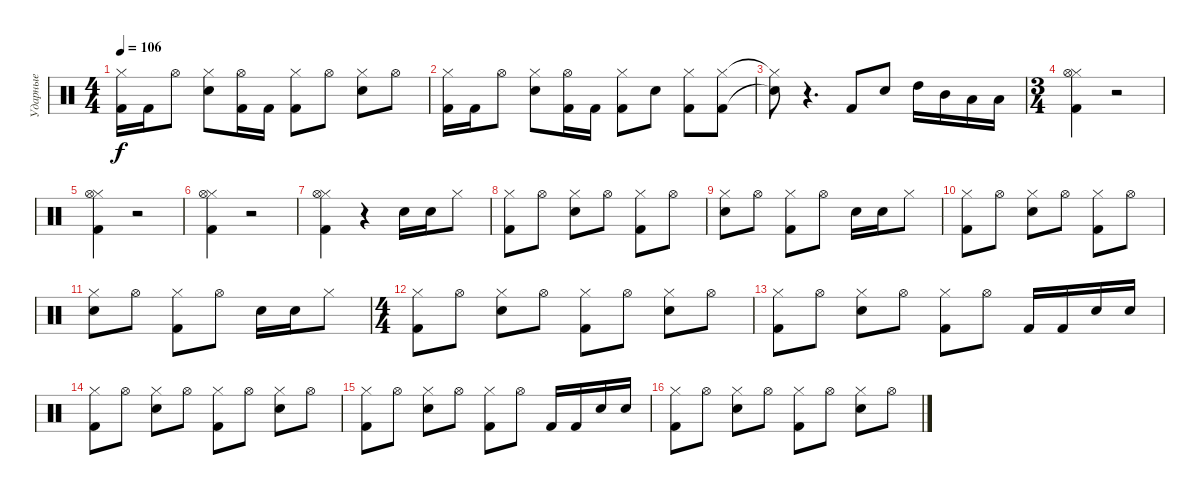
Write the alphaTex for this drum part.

\track ("Ударные" "Ударные") {instrument percussion}
\staff {score}
\articulation defaults
\ts (4 4)
\tempo 106
\clef neutral
\ks c
("Hi-Hat (closed)" "Kick (hit) 2").16{dy f} "Kick (hit) 2".16 "Hi-Hat (open)".8 ("Hi-Hat (closed)" "Electric Snare (hit)").8 ("Kick (hit) 2" "Hi-Hat (open)").16 "Kick (hit) 2".16 ("Hi-Hat (closed)" "Kick (hit) 2").8 "Hi-Hat (open)".8 ("Hi-Hat (closed)" "Electric Snare (hit)").8 "Hi-Hat (open)".8 |
("Hi-Hat (closed)" "Kick (hit) 2").16 "Kick (hit) 2".16 "Hi-Hat (open)".8 ("Hi-Hat (closed)" "Electric Snare (hit)").8 ("Kick (hit) 2" "Hi-Hat (open)").16 "Kick (hit) 2".16 ("Hi-Hat (closed)" "Kick (hit) 2").8 "Electric Snare (hit)".8 ("Hi-Hat (closed)" "Kick (hit) 2").8 ("Hi-Hat (closed)" "Kick (hit) 2").8 |
("Hi-Hat (closed)"{t} "Electric Snare (hit)"{t}).8 r.4{d} "Kick (hit) 2".8 "Electric Snare (hit)".8 "High Tom (hit)".16 "Mid Tom (hit)".16 "Low Tom (hit)".16 "Low Tom (hit)".16 |
\ts (3 4)
("Hi-Hat (closed)" "Kick (hit) 2" "Hi-Hat (open)").4 r.2 |
("Hi-Hat (closed)" "Kick (hit) 2" "Hi-Hat (open)").4 r.2 |
("Hi-Hat (closed)" "Kick (hit) 2" "Hi-Hat (open)").4 r.2 |
("Hi-Hat (closed)" "Kick (hit) 2" "Hi-Hat (open)").4 r.4 "Electric Snare (hit)".16 "Electric Snare (hit)".16 "Hi-Hat (closed)".8 |
("Hi-Hat (closed)" "Kick (hit) 2").8 "Hi-Hat (open)".8 ("Hi-Hat (closed)" "Electric Snare (hit)").8 "Hi-Hat (open)".8 ("Hi-Hat (closed)" "Kick (hit) 2").8 "Hi-Hat (open)".8 |
("Hi-Hat (closed)" "Electric Snare (hit)").8 "Hi-Hat (open)".8 ("Hi-Hat (closed)" "Kick (hit) 2").8 "Hi-Hat (open)".8 "Electric Snare (hit)".16 "Electric Snare (hit)".16 "Hi-Hat (closed)".8 |
("Hi-Hat (closed)" "Kick (hit) 2").8 "Hi-Hat (open)".8 ("Hi-Hat (closed)" "Electric Snare (hit)").8 "Hi-Hat (open)".8 ("Hi-Hat (closed)" "Kick (hit) 2").8 "Hi-Hat (open)".8 |
("Hi-Hat (closed)" "Electric Snare (hit)").8 "Hi-Hat (open)".8 ("Hi-Hat (closed)" "Kick (hit) 2").8 "Hi-Hat (open)".8 "Electric Snare (hit)".16 "Electric Snare (hit)".16 "Hi-Hat (closed)".8 |
\ts (4 4)
("Hi-Hat (closed)" "Kick (hit) 2").8 "Hi-Hat (open)".8 ("Hi-Hat (closed)" "Electric Snare (hit)").8 "Hi-Hat (open)".8 ("Hi-Hat (closed)" "Kick (hit) 2").8 "Hi-Hat (open)".8 ("Hi-Hat (closed)" "Electric Snare (hit)").8 "Hi-Hat (open)".8 |
("Hi-Hat (closed)" "Kick (hit) 2").8 "Hi-Hat (open)".8 ("Hi-Hat (closed)" "Electric Snare (hit)").8 "Hi-Hat (open)".8 ("Hi-Hat (closed)" "Kick (hit) 2").8 "Hi-Hat (open)".8 "Kick (hit) 2".16 "Kick (hit) 2".16 "Electric Snare (hit)".16 "Electric Snare (hit)".16 |
("Hi-Hat (closed)" "Kick (hit) 2").8 "Hi-Hat (open)".8 ("Hi-Hat (closed)" "Electric Snare (hit)").8 "Hi-Hat (open)".8 ("Hi-Hat (closed)" "Kick (hit) 2").8 "Hi-Hat (open)".8 ("Hi-Hat (closed)" "Electric Snare (hit)").8 "Hi-Hat (open)".8 |
("Hi-Hat (closed)" "Kick (hit) 2").8 "Hi-Hat (open)".8 ("Hi-Hat (closed)" "Electric Snare (hit)").8 "Hi-Hat (open)".8 ("Hi-Hat (closed)" "Kick (hit) 2").8 "Hi-Hat (open)".8 "Kick (hit) 2".16 "Kick (hit) 2".16 "Electric Snare (hit)".16 "Electric Snare (hit)".16 |
("Hi-Hat (closed)" "Kick (hit) 2").8 "Hi-Hat (open)".8 ("Hi-Hat (closed)" "Electric Snare (hit)").8 "Hi-Hat (open)".8 ("Hi-Hat (closed)" "Kick (hit) 2").8 "Hi-Hat (open)".8 ("Hi-Hat (closed)" "Electric Snare (hit)").8 "Hi-Hat (open)".8
